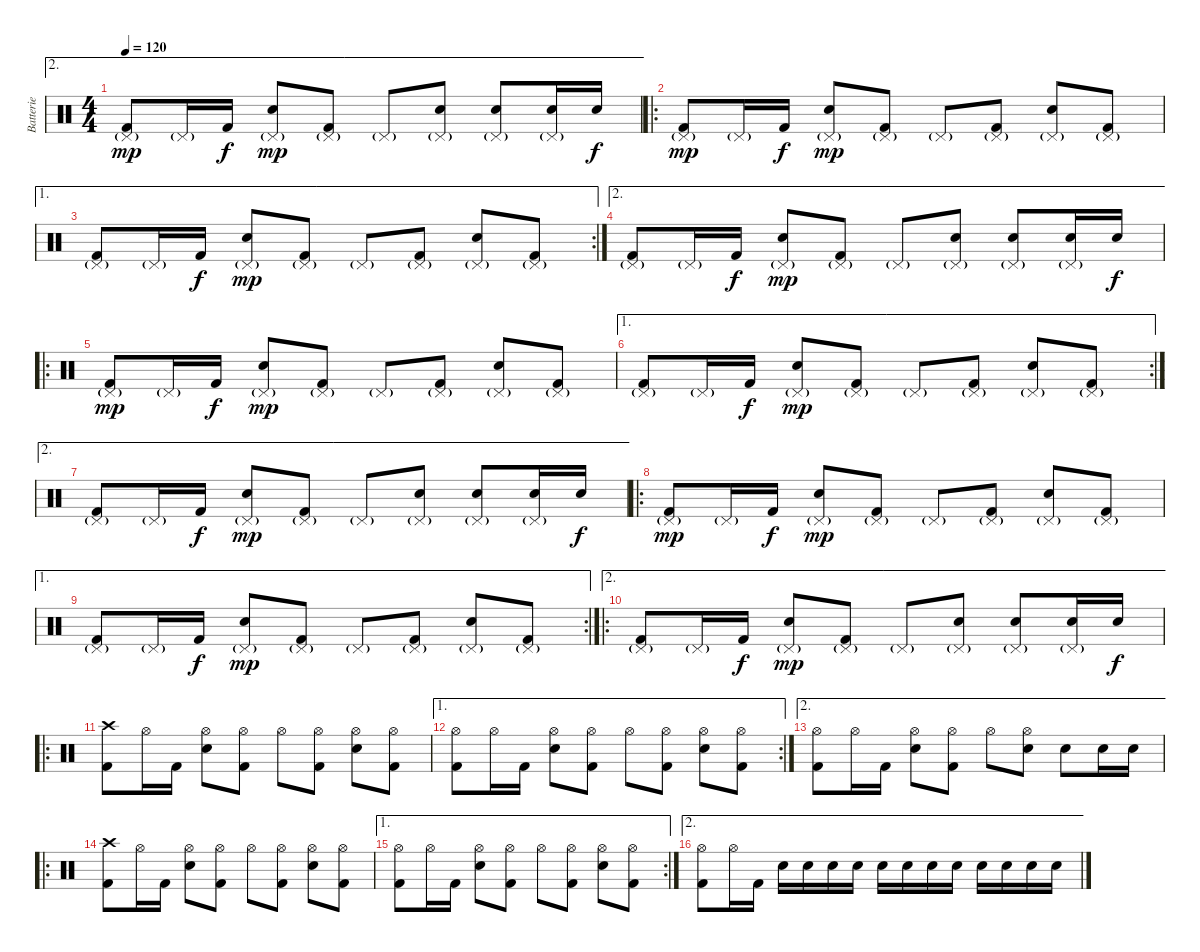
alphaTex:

\track ("Batterie" "Batterie") {instrument percussion}
\staff {score}
\articulation defaults
\ae 2
\ts (4 4)
\tempo 120
\clef neutral
\ks c
("Pedal Hi-Hat (hit)"{g} "Kick (hit) 2").8{dy mp} "Pedal Hi-Hat (hit)"{g}.16 "Kick (hit) 2".16{dy f} ("Pedal Hi-Hat (hit)"{g} "Snare (hit) 2").8{dy mp} ("Pedal Hi-Hat (hit)"{g} "Kick (hit) 2").8 "Pedal Hi-Hat (hit)"{g}.8 ("Pedal Hi-Hat (hit)"{g} "Snare (hit) 2").8 ("Pedal Hi-Hat (hit)"{g} "Snare (hit) 2").8 ("Pedal Hi-Hat (hit)"{g} "Snare (hit) 2").16 "Snare (hit) 2".16{dy f} |
\ro
("Pedal Hi-Hat (hit)"{g} "Kick (hit) 2").8{dy mp} "Pedal Hi-Hat (hit)"{g}.16 "Kick (hit) 2".16{dy f} ("Pedal Hi-Hat (hit)"{g} "Snare (hit) 2").8{dy mp} ("Pedal Hi-Hat (hit)"{g} "Kick (hit) 2").8 "Pedal Hi-Hat (hit)"{g}.8 ("Pedal Hi-Hat (hit)"{g} "Kick (hit) 2").8 ("Pedal Hi-Hat (hit)"{g} "Snare (hit) 2").8 ("Pedal Hi-Hat (hit)"{g} "Kick (hit) 2").8 |
\ae 1
\rc 2
("Pedal Hi-Hat (hit)"{g} "Kick (hit) 2").8 "Pedal Hi-Hat (hit)"{g}.16 "Kick (hit) 2".16{dy f} ("Pedal Hi-Hat (hit)"{g} "Snare (hit) 2").8{dy mp} ("Pedal Hi-Hat (hit)"{g} "Kick (hit) 2").8 "Pedal Hi-Hat (hit)"{g}.8 ("Pedal Hi-Hat (hit)"{g} "Kick (hit) 2").8 ("Pedal Hi-Hat (hit)"{g} "Snare (hit) 2").8 ("Pedal Hi-Hat (hit)"{g} "Kick (hit) 2").8 |
\ae 2
("Pedal Hi-Hat (hit)"{g} "Kick (hit) 2").8 "Pedal Hi-Hat (hit)"{g}.16 "Kick (hit) 2".16{dy f} ("Pedal Hi-Hat (hit)"{g} "Snare (hit) 2").8{dy mp} ("Pedal Hi-Hat (hit)"{g} "Kick (hit) 2").8 "Pedal Hi-Hat (hit)"{g}.8 ("Pedal Hi-Hat (hit)"{g} "Snare (hit) 2").8 ("Pedal Hi-Hat (hit)"{g} "Snare (hit) 2").8 ("Pedal Hi-Hat (hit)"{g} "Snare (hit) 2").16 "Snare (hit) 2".16{dy f} |
\ro
("Pedal Hi-Hat (hit)"{g} "Kick (hit) 2").8{dy mp} "Pedal Hi-Hat (hit)"{g}.16 "Kick (hit) 2".16{dy f} ("Pedal Hi-Hat (hit)"{g} "Snare (hit) 2").8{dy mp} ("Pedal Hi-Hat (hit)"{g} "Kick (hit) 2").8 "Pedal Hi-Hat (hit)"{g}.8 ("Pedal Hi-Hat (hit)"{g} "Kick (hit) 2").8 ("Pedal Hi-Hat (hit)"{g} "Snare (hit) 2").8 ("Pedal Hi-Hat (hit)"{g} "Kick (hit) 2").8 |
\ae 1
\rc 2
("Pedal Hi-Hat (hit)"{g} "Kick (hit) 2").8 "Pedal Hi-Hat (hit)"{g}.16 "Kick (hit) 2".16{dy f} ("Pedal Hi-Hat (hit)"{g} "Snare (hit) 2").8{dy mp} ("Pedal Hi-Hat (hit)"{g} "Kick (hit) 2").8 "Pedal Hi-Hat (hit)"{g}.8 ("Pedal Hi-Hat (hit)"{g} "Kick (hit) 2").8 ("Pedal Hi-Hat (hit)"{g} "Snare (hit) 2").8 ("Pedal Hi-Hat (hit)"{g} "Kick (hit) 2").8 |
\ae 2
("Pedal Hi-Hat (hit)"{g} "Kick (hit) 2").8 "Pedal Hi-Hat (hit)"{g}.16 "Kick (hit) 2".16{dy f} ("Pedal Hi-Hat (hit)"{g} "Snare (hit) 2").8{dy mp} ("Pedal Hi-Hat (hit)"{g} "Kick (hit) 2").8 "Pedal Hi-Hat (hit)"{g}.8 ("Pedal Hi-Hat (hit)"{g} "Snare (hit) 2").8 ("Pedal Hi-Hat (hit)"{g} "Snare (hit) 2").8 ("Pedal Hi-Hat (hit)"{g} "Snare (hit) 2").16 "Snare (hit) 2".16{dy f} |
\ro
("Pedal Hi-Hat (hit)"{g} "Kick (hit) 2").8{dy mp} "Pedal Hi-Hat (hit)"{g}.16 "Kick (hit) 2".16{dy f} ("Pedal Hi-Hat (hit)"{g} "Snare (hit) 2").8{dy mp} ("Pedal Hi-Hat (hit)"{g} "Kick (hit) 2").8 "Pedal Hi-Hat (hit)"{g}.8 ("Pedal Hi-Hat (hit)"{g} "Kick (hit) 2").8 ("Pedal Hi-Hat (hit)"{g} "Snare (hit) 2").8 ("Pedal Hi-Hat (hit)"{g} "Kick (hit) 2").8 |
\ae 1
\rc 2
("Pedal Hi-Hat (hit)"{g} "Kick (hit) 2").8 "Pedal Hi-Hat (hit)"{g}.16 "Kick (hit) 2".16{dy f} ("Pedal Hi-Hat (hit)"{g} "Snare (hit) 2").8{dy mp} ("Pedal Hi-Hat (hit)"{g} "Kick (hit) 2").8 "Pedal Hi-Hat (hit)"{g}.8 ("Pedal Hi-Hat (hit)"{g} "Kick (hit) 2").8 ("Pedal Hi-Hat (hit)"{g} "Snare (hit) 2").8 ("Pedal Hi-Hat (hit)"{g} "Kick (hit) 2").8 |
\ae 2
\ro
("Pedal Hi-Hat (hit)"{g} "Kick (hit) 2").8 "Pedal Hi-Hat (hit)"{g}.16 "Kick (hit) 2".16{dy f} ("Pedal Hi-Hat (hit)"{g} "Snare (hit) 2").8{dy mp} ("Pedal Hi-Hat (hit)"{g} "Kick (hit) 2").8 "Pedal Hi-Hat (hit)"{g}.8 ("Pedal Hi-Hat (hit)"{g} "Snare (hit) 2").8 ("Pedal Hi-Hat (hit)"{g} "Snare (hit) 2").8 ("Pedal Hi-Hat (hit)"{g} "Snare (hit) 2").16 "Snare (hit) 2".16{dy f} |
\ro
("Crash high (hit)" "Kick (hit) 2").8 "Hi-Hat (open)".16 "Kick (hit) 2".16 ("Hi-Hat (open)" "Snare (hit) 2").8 ("Hi-Hat (open)" "Kick (hit) 2").8 "Hi-Hat (open)".8 ("Hi-Hat (open)" "Kick (hit) 2").8 ("Hi-Hat (open)" "Snare (hit) 2").8 ("Hi-Hat (open)" "Kick (hit) 2").8 |
\ae 1
\rc 2
("Hi-Hat (open)" "Kick (hit) 2").8 "Hi-Hat (open)".16 "Kick (hit) 2".16 ("Hi-Hat (open)" "Snare (hit) 2").8 ("Hi-Hat (open)" "Kick (hit) 2").8 "Hi-Hat (open)".8 ("Hi-Hat (open)" "Kick (hit) 2").8 ("Hi-Hat (open)" "Snare (hit) 2").8 ("Hi-Hat (open)" "Kick (hit) 2").8 |
\ae 2
("Hi-Hat (open)" "Kick (hit) 2").8 "Hi-Hat (open)".16 "Kick (hit) 2".16 ("Hi-Hat (open)" "Snare (hit) 2").8 ("Hi-Hat (open)" "Kick (hit) 2").8 "Hi-Hat (open)".8 ("Hi-Hat (open)" "Snare (hit) 2").8 "Snare (hit) 2".8 "Snare (hit) 2".16 "Snare (hit) 2".16 |
\ro
("Crash high (hit)" "Kick (hit) 2").8 "Hi-Hat (open)".16 "Kick (hit) 2".16 ("Hi-Hat (open)" "Snare (hit) 2").8 ("Hi-Hat (open)" "Kick (hit) 2").8 "Hi-Hat (open)".8 ("Hi-Hat (open)" "Kick (hit) 2").8 ("Hi-Hat (open)" "Snare (hit) 2").8 ("Hi-Hat (open)" "Kick (hit) 2").8 |
\ae 1
\rc 2
("Hi-Hat (open)" "Kick (hit) 2").8 "Hi-Hat (open)".16 "Kick (hit) 2".16 ("Hi-Hat (open)" "Snare (hit) 2").8 ("Hi-Hat (open)" "Kick (hit) 2").8 "Hi-Hat (open)".8 ("Hi-Hat (open)" "Kick (hit) 2").8 ("Hi-Hat (open)" "Snare (hit) 2").8 ("Hi-Hat (open)" "Kick (hit) 2").8 |
\ae 2
("Hi-Hat (open)" "Kick (hit) 2").8 "Hi-Hat (open)".16 "Kick (hit) 2".16 "Snare (hit) 2".16 "Snare (hit) 2".16 "Snare (hit) 2".16 "Snare (hit) 2".16 "Snare (hit) 2".16 "Snare (hit) 2".16 "Snare (hit) 2".16 "Snare (hit) 2".16 "Snare (hit) 2".16 "Snare (hit) 2".16 "Snare (hit) 2".16 "Snare (hit) 2".16
